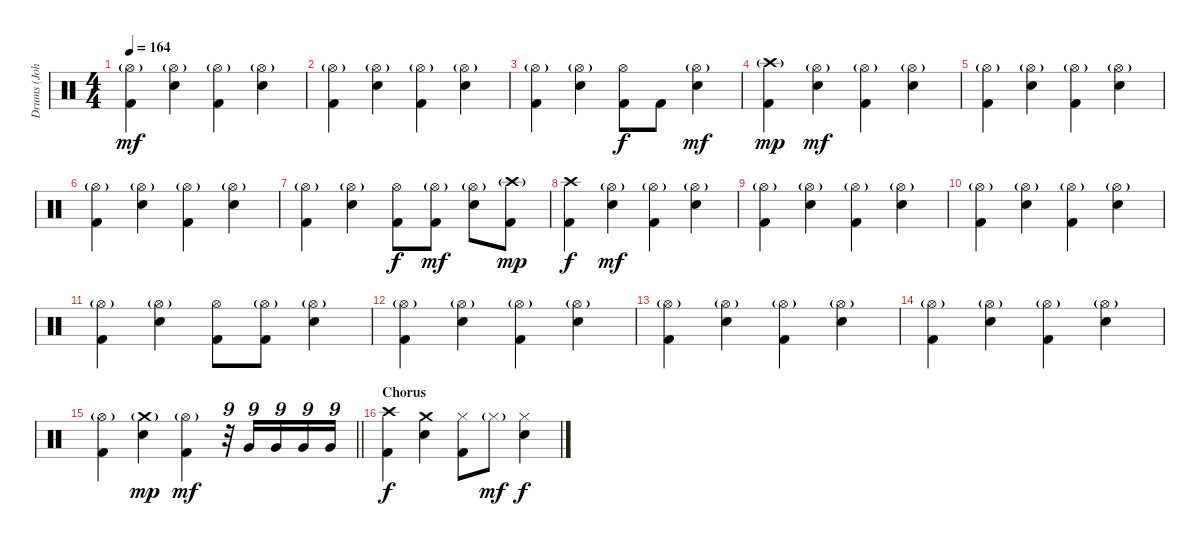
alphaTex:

\track ("Drums (John O'Reilly)" "Drums (Joh") {instrument percussion}
\staff {score}
\articulation defaults
\ts (4 4)
\tempo 164
\clef neutral
\ks c
("Hi-Hat (open)"{g} "Kick (hit) 2").4{dy mf} ("Hi-Hat (open)"{g} "Electric Snare (hit)").4 ("Hi-Hat (open)"{g} "Kick (hit) 2").4 ("Hi-Hat (open)"{g} "Electric Snare (hit)").4 |
("Hi-Hat (open)"{g} "Kick (hit) 2").4 ("Hi-Hat (open)"{g} "Electric Snare (hit)").4 ("Hi-Hat (open)"{g} "Kick (hit) 2").4 ("Hi-Hat (open)"{g} "Electric Snare (hit)").4 |
("Hi-Hat (open)"{g} "Kick (hit) 2").4 ("Hi-Hat (open)"{g} "Electric Snare (hit)").4 ("Hi-Hat (open)" "Kick (hit) 2").8{dy f} "Kick (hit) 2".8 ("Hi-Hat (open)"{g} "Electric Snare (hit)").4{dy mf} |
("Crash high (hit)"{g} "Kick (hit) 2").4{dy mp} ("Hi-Hat (open)"{g} "Electric Snare (hit)").4{dy mf} ("Hi-Hat (open)"{g} "Kick (hit) 2").4 ("Hi-Hat (open)"{g} "Electric Snare (hit)").4 |
("Hi-Hat (open)"{g} "Kick (hit) 2").4 ("Hi-Hat (open)"{g} "Electric Snare (hit)").4 ("Hi-Hat (open)"{g} "Kick (hit) 2").4 ("Hi-Hat (open)"{g} "Electric Snare (hit)").4 |
("Hi-Hat (open)"{g} "Kick (hit) 2").4 ("Hi-Hat (open)"{g} "Electric Snare (hit)").4 ("Hi-Hat (open)"{g} "Kick (hit) 2").4 ("Hi-Hat (open)"{g} "Electric Snare (hit)").4 |
("Hi-Hat (open)"{g} "Kick (hit) 2").4 ("Hi-Hat (open)"{g} "Electric Snare (hit)").4 ("Hi-Hat (open)" "Kick (hit) 2").8{dy f} ("Hi-Hat (open)"{g} "Kick (hit) 2").8{dy mf} ("Hi-Hat (open)"{g} "Electric Snare (hit)").8 ("Crash high (hit)"{g} "Kick (hit) 2").8{dy mp} |
("Crash high (hit)" "Kick (hit) 2").4{dy f} ("Hi-Hat (open)"{g} "Electric Snare (hit)").4{dy mf} ("Hi-Hat (open)"{g} "Kick (hit) 2").4 ("Hi-Hat (open)"{g} "Electric Snare (hit)").4 |
("Hi-Hat (open)"{g} "Kick (hit) 2").4 ("Hi-Hat (open)"{g} "Electric Snare (hit)").4 ("Hi-Hat (open)"{g} "Kick (hit) 2").4 ("Hi-Hat (open)"{g} "Electric Snare (hit)").4 |
("Hi-Hat (open)"{g} "Kick (hit) 2").4 ("Hi-Hat (open)"{g} "Electric Snare (hit)").4 ("Hi-Hat (open)"{g} "Kick (hit) 2").4 ("Hi-Hat (open)"{g} "Electric Snare (hit)").4 |
("Hi-Hat (open)"{g} "Kick (hit) 2").4 ("Hi-Hat (open)"{g} "Electric Snare (hit)").4 ("Hi-Hat (open)" "Kick (hit) 2").8 ("Hi-Hat (open)"{g} "Kick (hit) 2").8 ("Hi-Hat (open)"{g} "Electric Snare (hit)").4 |
("Hi-Hat (open)"{g} "Kick (hit) 2").4 ("Hi-Hat (open)"{g} "Electric Snare (hit)").4 ("Hi-Hat (open)"{g} "Kick (hit) 2").4 ("Hi-Hat (open)"{g} "Electric Snare (hit)").4 |
("Hi-Hat (open)"{g} "Kick (hit) 2").4 ("Hi-Hat (open)"{g} "Electric Snare (hit)").4 ("Hi-Hat (open)"{g} "Kick (hit) 2").4 ("Hi-Hat (open)"{g} "Electric Snare (hit)").4 |
("Hi-Hat (open)"{g} "Kick (hit) 2").4 ("Hi-Hat (open)"{g} "Electric Snare (hit)").4 ("Hi-Hat (open)"{g} "Kick (hit) 2").4 ("Hi-Hat (open)"{g} "Electric Snare (hit)").4 |
\barLineRight lightlight
("Hi-Hat (open)"{g} "Kick (hit) 2").4 ("Crash medium (hit)"{g} "Electric Snare (hit)").4{dy mp} ("Hi-Hat (open)"{g} "Kick (hit) 2").4{dy mf} r.32{tu (9 8)} "Very Low Tom (hit)".16{tu (9 8)} "Very Low Tom (hit)".16{tu (9 8)} "Very Low Tom (hit)".16{tu (9 8)} "Very Low Tom (hit)".16{tu (9 8)} |
\section ("" "Chorus")
("Crash high (hit)" "Kick (hit) 2").4{dy f} ("Crash medium (hit)" "Electric Snare (hit)").4 ("Hi-Hat (closed)" "Kick (hit) 2").8 "Hi-Hat (closed)"{g}.8{dy mf} ("Hi-Hat (closed)" "Electric Snare (hit)").4{dy f}
